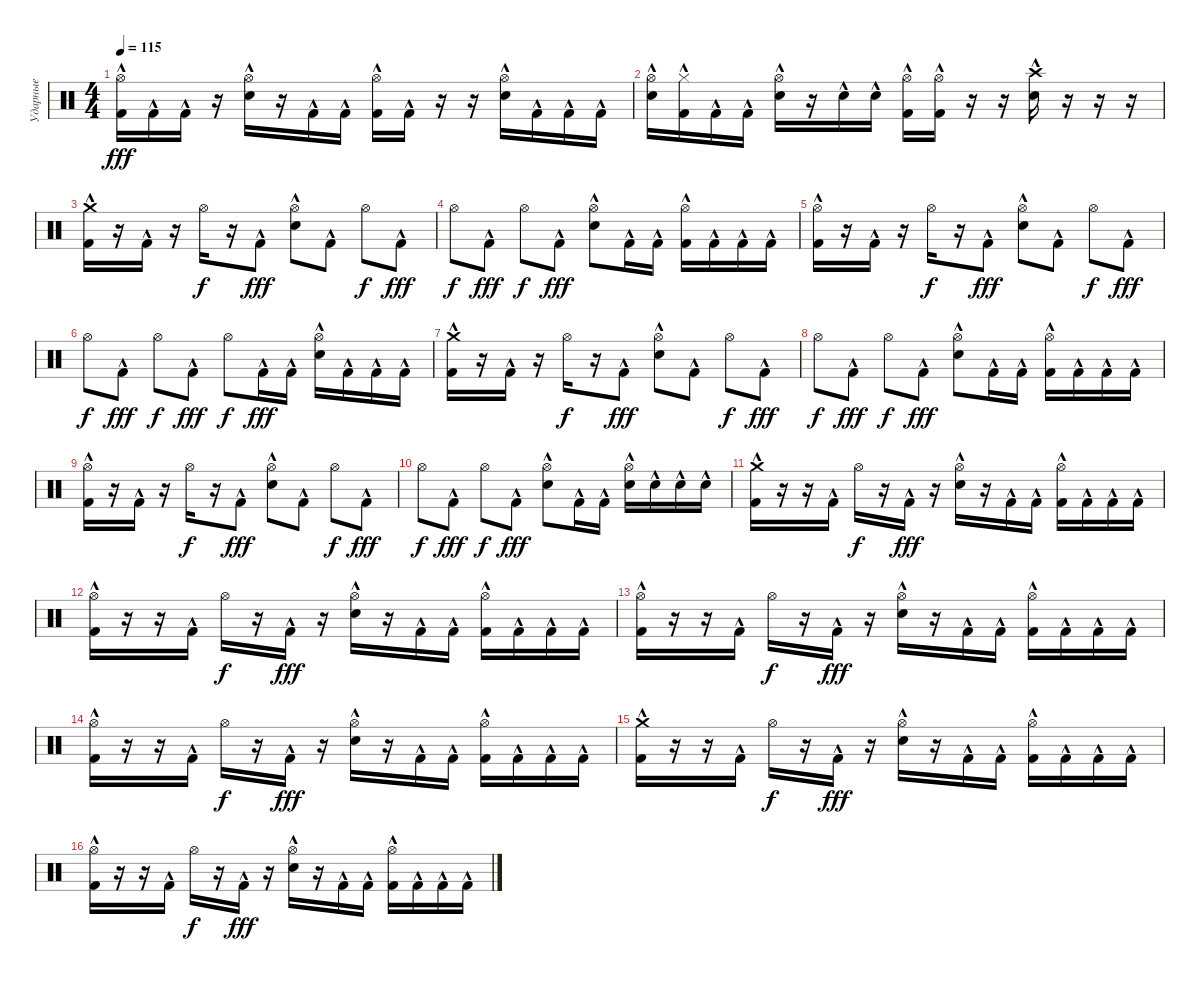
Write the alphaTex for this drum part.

\track ("Ударные" "Ударные") {instrument percussion}
\staff
\articulation defaults
\ts (4 4)
\tempo 115
\clef neutral
\ks c
("Hi-Hat (open)" "Kick (hit) 2"{hac}).16{dy fff} "Kick (hit) 2"{hac}.16 "Kick (hit) 2"{hac}.16 r.16 ("Hi-Hat (open)" "Snare (hit) 2"{hac}).16 r.16 "Kick (hit) 2"{hac}.16 "Kick (hit) 2"{hac}.16 ("Hi-Hat (open)" "Kick (hit) 2"{hac}).16 "Kick (hit) 2"{hac}.16 r.16 r.16 ("Hi-Hat (open)" "Snare (hit) 2"{hac}).16 "Kick (hit) 2"{hac}.16 "Kick (hit) 2"{hac}.16 "Kick (hit) 2"{hac}.16 |
("Hi-Hat (open)" "Snare (hit) 2"{hac}).16 ("Hi-Hat (closed)" "Kick (hit) 2"{hac}).16 "Kick (hit) 2"{hac}.16 "Kick (hit) 2"{hac}.16 ("Hi-Hat (open)" "Snare (hit) 2"{hac}).16 r.16 "Snare (hit) 2"{hac}.16 "Snare (hit) 2"{hac}.16 ("Hi-Hat (open)" "Kick (hit) 2"{hac}).16 ("Hi-Hat (open)" "Kick (hit) 2"{hac}).16 r.16 r.16 ("Crash high (hit)" "Snare (hit) 2"{hac}).16 r.16 r.16 r.16 |
("Crash medium (hit)" "Kick (hit) 2"{hac}).16 r.16 "Kick (hit) 2"{hac}.16 r.16 "Hi-Hat (open)".16{dy f} r.16 "Kick (hit) 2"{hac}.8{dy fff} ("Hi-Hat (open)" "Snare (hit) 2"{hac}).8 "Kick (hit) 2"{hac}.8 "Hi-Hat (open)".8{dy f} "Kick (hit) 2"{hac}.8{dy fff} |
"Hi-Hat (open)".8{dy f} "Kick (hit) 2"{hac}.8{dy fff} "Hi-Hat (open)".8{dy f} "Kick (hit) 2"{hac}.8{dy fff} ("Hi-Hat (open)" "Snare (hit) 2"{hac}).8 "Kick (hit) 2"{hac}.16 "Kick (hit) 2"{hac}.16 ("Hi-Hat (open)" "Kick (hit) 2"{hac}).16 "Kick (hit) 2"{hac}.16 "Kick (hit) 2"{hac}.16 "Kick (hit) 2"{hac}.16 |
("Hi-Hat (open)" "Kick (hit) 2"{hac}).16 r.16 "Kick (hit) 2"{hac}.16 r.16 "Hi-Hat (open)".16{dy f} r.16 "Kick (hit) 2"{hac}.8{dy fff} ("Hi-Hat (open)" "Snare (hit) 2"{hac}).8 "Kick (hit) 2"{hac}.8 "Hi-Hat (open)".8{dy f} "Kick (hit) 2"{hac}.8{dy fff} |
"Hi-Hat (open)".8{dy f} "Kick (hit) 2"{hac}.8{dy fff} "Hi-Hat (open)".8{dy f} "Kick (hit) 2"{hac}.8{dy fff} "Hi-Hat (open)".8{dy f} "Kick (hit) 2"{hac}.16{dy fff} "Kick (hit) 2"{hac}.16 ("Hi-Hat (open)" "Snare (hit) 2"{hac}).16 "Kick (hit) 2"{hac}.16 "Kick (hit) 2"{hac}.16 "Kick (hit) 2"{hac}.16 |
("Crash medium (hit)" "Kick (hit) 2"{hac}).16 r.16 "Kick (hit) 2"{hac}.16 r.16 "Hi-Hat (open)".16{dy f} r.16 "Kick (hit) 2"{hac}.8{dy fff} ("Hi-Hat (open)" "Snare (hit) 2"{hac}).8 "Kick (hit) 2"{hac}.8 "Hi-Hat (open)".8{dy f} "Kick (hit) 2"{hac}.8{dy fff} |
"Hi-Hat (open)".8{dy f} "Kick (hit) 2"{hac}.8{dy fff} "Hi-Hat (open)".8{dy f} "Kick (hit) 2"{hac}.8{dy fff} ("Hi-Hat (open)" "Snare (hit) 2"{hac}).8 "Kick (hit) 2"{hac}.16 "Kick (hit) 2"{hac}.16 ("Hi-Hat (open)" "Kick (hit) 2"{hac}).16 "Kick (hit) 2"{hac}.16 "Kick (hit) 2"{hac}.16 "Kick (hit) 2"{hac}.16 |
("Hi-Hat (open)" "Kick (hit) 2"{hac}).16 r.16 "Kick (hit) 2"{hac}.16 r.16 "Hi-Hat (open)".16{dy f} r.16 "Kick (hit) 2"{hac}.8{dy fff} ("Hi-Hat (open)" "Snare (hit) 2"{hac}).8 "Kick (hit) 2"{hac}.8 "Hi-Hat (open)".8{dy f} "Kick (hit) 2"{hac}.8{dy fff} |
"Hi-Hat (open)".8{dy f} "Kick (hit) 2"{hac}.8{dy fff} "Hi-Hat (open)".8{dy f} "Kick (hit) 2"{hac}.8{dy fff} ("Hi-Hat (open)" "Snare (hit) 2"{hac}).8 "Kick (hit) 2"{hac}.16 "Kick (hit) 2"{hac}.16 ("Hi-Hat (open)" "Snare (hit) 2"{hac}).16 "Snare (hit) 2"{hac}.16 "Snare (hit) 2"{hac}.16 "Snare (hit) 2"{hac}.16 |
("Crash medium (hit)" "Kick (hit) 2"{hac}).16 r.16 r.16 "Kick (hit) 2"{hac}.16 "Hi-Hat (open)".16{dy f} r.16 "Kick (hit) 2"{hac}.16{dy fff} r.16 ("Hi-Hat (open)" "Snare (hit) 2"{hac}).16 r.16 "Kick (hit) 2"{hac}.16 "Kick (hit) 2"{hac}.16 ("Hi-Hat (open)" "Kick (hit) 2"{hac}).16 "Kick (hit) 2"{hac}.16 "Kick (hit) 2"{hac}.16 "Kick (hit) 2"{hac}.16 |
("Hi-Hat (open)" "Kick (hit) 2"{hac}).16 r.16 r.16 "Kick (hit) 2"{hac}.16 "Hi-Hat (open)".16{dy f} r.16 "Kick (hit) 2"{hac}.16{dy fff} r.16 ("Hi-Hat (open)" "Snare (hit) 2"{hac}).16 r.16 "Kick (hit) 2"{hac}.16 "Kick (hit) 2"{hac}.16 ("Hi-Hat (open)" "Kick (hit) 2"{hac}).16 "Kick (hit) 2"{hac}.16 "Kick (hit) 2"{hac}.16 "Kick (hit) 2"{hac}.16 |
("Hi-Hat (open)" "Kick (hit) 2"{hac}).16 r.16 r.16 "Kick (hit) 2"{hac}.16 "Hi-Hat (open)".16{dy f} r.16 "Kick (hit) 2"{hac}.16{dy fff} r.16 ("Hi-Hat (open)" "Snare (hit) 2"{hac}).16 r.16 "Kick (hit) 2"{hac}.16 "Kick (hit) 2"{hac}.16 ("Hi-Hat (open)" "Kick (hit) 2"{hac}).16 "Kick (hit) 2"{hac}.16 "Kick (hit) 2"{hac}.16 "Kick (hit) 2"{hac}.16 |
("Hi-Hat (open)" "Kick (hit) 2"{hac}).16 r.16 r.16 "Kick (hit) 2"{hac}.16 "Hi-Hat (open)".16{dy f} r.16 "Kick (hit) 2"{hac}.16{dy fff} r.16 ("Hi-Hat (open)" "Snare (hit) 2"{hac}).16 r.16 "Kick (hit) 2"{hac}.16 "Kick (hit) 2"{hac}.16 ("Hi-Hat (open)" "Kick (hit) 2"{hac}).16 "Kick (hit) 2"{hac}.16 "Kick (hit) 2"{hac}.16 "Kick (hit) 2"{hac}.16 |
("Crash medium (hit)" "Kick (hit) 2"{hac}).16 r.16 r.16 "Kick (hit) 2"{hac}.16 "Hi-Hat (open)".16{dy f} r.16 "Kick (hit) 2"{hac}.16{dy fff} r.16 ("Hi-Hat (open)" "Snare (hit) 2"{hac}).16 r.16 "Kick (hit) 2"{hac}.16 "Kick (hit) 2"{hac}.16 ("Hi-Hat (open)" "Kick (hit) 2"{hac}).16 "Kick (hit) 2"{hac}.16 "Kick (hit) 2"{hac}.16 "Kick (hit) 2"{hac}.16 |
("Hi-Hat (open)" "Kick (hit) 2"{hac}).16 r.16 r.16 "Kick (hit) 2"{hac}.16 "Hi-Hat (open)".16{dy f} r.16 "Kick (hit) 2"{hac}.16{dy fff} r.16 ("Hi-Hat (open)" "Snare (hit) 2"{hac}).16 r.16 "Kick (hit) 2"{hac}.16 "Kick (hit) 2"{hac}.16 ("Hi-Hat (open)" "Kick (hit) 2"{hac}).16 "Kick (hit) 2"{hac}.16 "Kick (hit) 2"{hac}.16 "Kick (hit) 2"{hac}.16
